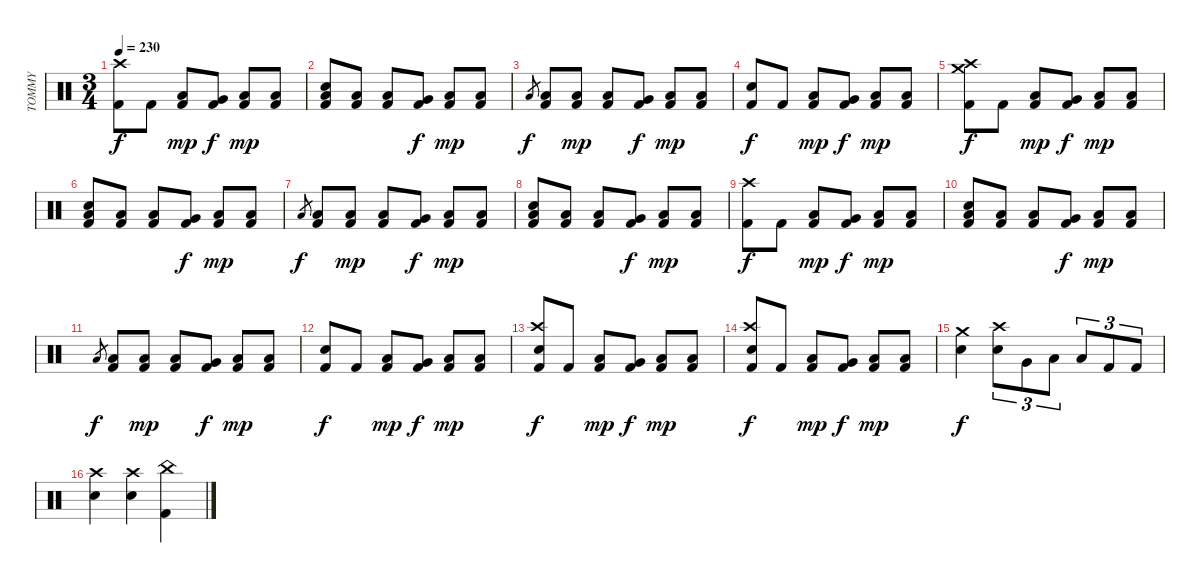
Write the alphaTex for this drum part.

\track ("TOMMY" "TOMMY") {instrument percussion}
\staff {score}
\articulation defaults
\ts (3 4)
\tempo 230
\clef neutral
\ks c
("Kick (hit) 2" "Crash high (hit)").8{dy f} "Kick (hit) 2".8 ("Kick (hit) 2" "Low Floor Tom (hit)").8{dy mp} ("Kick (hit) 2" "Very Low Tom (hit)").8{dy f} ("Kick (hit) 2" "Low Floor Tom (hit)").8{dy mp} ("Kick (hit) 2" "Low Floor Tom (hit)").8 |
("Snare (hit) 2" "Kick (hit) 2" "Low Floor Tom (hit)").8 ("Kick (hit) 2" "Low Floor Tom (hit)").8 ("Kick (hit) 2" "Low Floor Tom (hit)").8 ("Kick (hit) 2" "Very Low Tom (hit)").8{dy f} ("Kick (hit) 2" "Low Floor Tom (hit)").8{dy mp} ("Kick (hit) 2" "Low Floor Tom (hit)").8 |
"Low Floor Tom (hit)".8{gr dy f} ("Kick (hit) 2" "Low Floor Tom (hit)").8 ("Kick (hit) 2" "Low Floor Tom (hit)").8{dy mp} ("Kick (hit) 2" "Low Floor Tom (hit)").8 ("Kick (hit) 2" "Very Low Tom (hit)").8{dy f} ("Kick (hit) 2" "Low Floor Tom (hit)").8{dy mp} ("Kick (hit) 2" "Low Floor Tom (hit)").8 |
("Snare (hit) 2" "Kick (hit) 2").8{dy f} "Kick (hit) 2".8 ("Kick (hit) 2" "Low Floor Tom (hit)").8{dy mp} ("Kick (hit) 2" "Very Low Tom (hit)").8{dy f} ("Kick (hit) 2" "Low Floor Tom (hit)").8{dy mp} ("Kick (hit) 2" "Low Floor Tom (hit)").8 |
("Kick (hit) 2" "Crash high (hit)" "Crash medium (hit)").8{dy f} "Kick (hit) 2".8 ("Kick (hit) 2" "Low Floor Tom (hit)").8{dy mp} ("Kick (hit) 2" "Very Low Tom (hit)").8{dy f} ("Kick (hit) 2" "Low Floor Tom (hit)").8{dy mp} ("Kick (hit) 2" "Low Floor Tom (hit)").8 |
("Snare (hit) 2" "Kick (hit) 2" "Low Floor Tom (hit)").8 ("Kick (hit) 2" "Low Floor Tom (hit)").8 ("Kick (hit) 2" "Low Floor Tom (hit)").8 ("Kick (hit) 2" "Very Low Tom (hit)").8{dy f} ("Kick (hit) 2" "Low Floor Tom (hit)").8{dy mp} ("Kick (hit) 2" "Low Floor Tom (hit)").8 |
"Low Floor Tom (hit)".8{gr dy f} ("Kick (hit) 2" "Low Floor Tom (hit)").8 ("Kick (hit) 2" "Low Floor Tom (hit)").8{dy mp} ("Kick (hit) 2" "Low Floor Tom (hit)").8 ("Kick (hit) 2" "Very Low Tom (hit)").8{dy f} ("Kick (hit) 2" "Low Floor Tom (hit)").8{dy mp} ("Kick (hit) 2" "Low Floor Tom (hit)").8 |
("Snare (hit) 2" "Kick (hit) 2" "Low Floor Tom (hit)").8 ("Kick (hit) 2" "Low Floor Tom (hit)").8 ("Kick (hit) 2" "Low Floor Tom (hit)").8 ("Kick (hit) 2" "Very Low Tom (hit)").8{dy f} ("Kick (hit) 2" "Low Floor Tom (hit)").8{dy mp} ("Kick (hit) 2" "Low Floor Tom (hit)").8 |
("Kick (hit) 2" "Crash high (hit)").8{dy f} "Kick (hit) 2".8 ("Kick (hit) 2" "Low Floor Tom (hit)").8{dy mp} ("Kick (hit) 2" "Very Low Tom (hit)").8{dy f} ("Kick (hit) 2" "Low Floor Tom (hit)").8{dy mp} ("Kick (hit) 2" "Low Floor Tom (hit)").8 |
("Snare (hit) 2" "Kick (hit) 2" "Low Floor Tom (hit)").8 ("Kick (hit) 2" "Low Floor Tom (hit)").8 ("Kick (hit) 2" "Low Floor Tom (hit)").8 ("Kick (hit) 2" "Very Low Tom (hit)").8{dy f} ("Kick (hit) 2" "Low Floor Tom (hit)").8{dy mp} ("Kick (hit) 2" "Low Floor Tom (hit)").8 |
"Low Floor Tom (hit)".8{gr dy f} ("Kick (hit) 2" "Low Floor Tom (hit)").8 ("Kick (hit) 2" "Low Floor Tom (hit)").8{dy mp} ("Kick (hit) 2" "Low Floor Tom (hit)").8 ("Kick (hit) 2" "Very Low Tom (hit)").8{dy f} ("Kick (hit) 2" "Low Floor Tom (hit)").8{dy mp} ("Kick (hit) 2" "Low Floor Tom (hit)").8 |
("Snare (hit) 2" "Kick (hit) 2").8{dy f} "Kick (hit) 2".8 ("Kick (hit) 2" "Low Floor Tom (hit)").8{dy mp} ("Kick (hit) 2" "Very Low Tom (hit)").8{dy f} ("Kick (hit) 2" "Low Floor Tom (hit)").8{dy mp} ("Kick (hit) 2" "Low Floor Tom (hit)").8 |
("Snare (hit) 2" "Kick (hit) 2" "Crash high (hit)").8{dy f} "Kick (hit) 2".8 ("Kick (hit) 2" "Low Floor Tom (hit)").8{dy mp} ("Kick (hit) 2" "Very Low Tom (hit)").8{dy f} ("Kick (hit) 2" "Low Floor Tom (hit)").8{dy mp} ("Kick (hit) 2" "Low Floor Tom (hit)").8 |
("Snare (hit) 2" "Kick (hit) 2" "Crash high (hit)").8{dy f} "Kick (hit) 2".8 ("Kick (hit) 2" "Low Floor Tom (hit)").8{dy mp} ("Kick (hit) 2" "Very Low Tom (hit)").8{dy f} ("Kick (hit) 2" "Low Floor Tom (hit)").8{dy mp} ("Kick (hit) 2" "Low Floor Tom (hit)").8 |
("Snare (hit) 2" "Crash medium (hit)").4{dy f} ("Snare (hit) 2" "Crash high (hit)").8{tu (3 2)} "Very Low Tom (hit)".8{tu (3 2)} "Low Floor Tom (hit)".8{tu (3 2)} "Low Floor Tom (hit)".8{tu (3 2)} "Kick (hit) 2".8{tu (3 2)} "Kick (hit) 2".8{tu (3 2)} |
("Snare (hit) 2" "Crash high (hit)").4 ("Snare (hit) 2" "Crash high (hit)").4 ("Kick (hit) 2" "China (hit)").4
